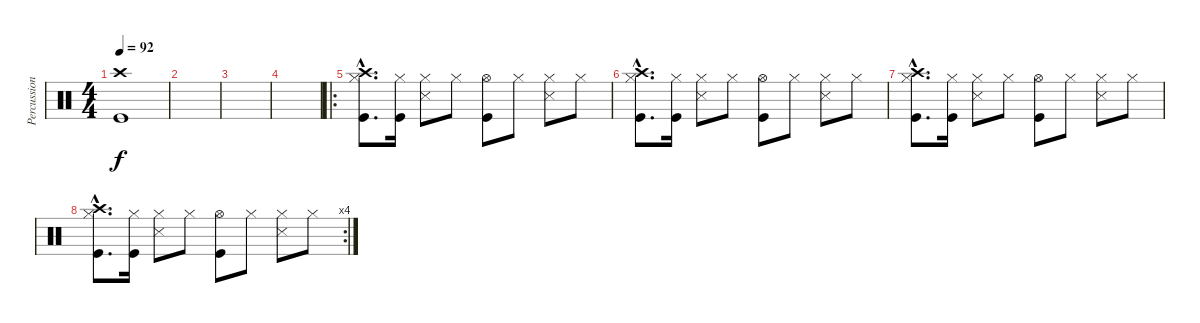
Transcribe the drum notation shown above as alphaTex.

\track ("Percussion" "Percussion") {instrument percussion}
\staff {score}
\articulation defaults
\ts (4 4)
\tempo 92
\clef neutral
\ks c
("Kick (hit)" "Crash high (hit)").1{dy f} |
|
|
|
\ro
("Hi-Hat (closed)"{hac} "Crash high (hit)"{hac} "Kick (hit)"{hac}).8{d} ("Hi-Hat (closed)" "Kick (hit)").16 ("Hi-Hat (closed)" "Snare (side stick) 3").8 "Hi-Hat (closed)".8 ("Hi-Hat (open)" "Kick (hit)").8 "Hi-Hat (closed)".8 ("Hi-Hat (closed)" "Snare (side stick) 3").8 "Hi-Hat (closed)".8 |
("Hi-Hat (closed)"{hac} "Crash high (hit)"{hac} "Kick (hit)"{hac}).8{d} ("Hi-Hat (closed)" "Kick (hit)").16 ("Hi-Hat (closed)" "Snare (side stick) 3").8 "Hi-Hat (closed)".8 ("Hi-Hat (open)" "Kick (hit)").8 "Hi-Hat (closed)".8 ("Hi-Hat (closed)" "Snare (side stick) 3").8 "Hi-Hat (closed)".8 |
("Hi-Hat (closed)"{hac} "Crash high (hit)"{hac} "Kick (hit)"{hac}).8{d} ("Hi-Hat (closed)" "Kick (hit)").16 ("Hi-Hat (closed)" "Snare (side stick) 3").8 "Hi-Hat (closed)".8 ("Hi-Hat (open)" "Kick (hit)").8 "Hi-Hat (closed)".8 ("Hi-Hat (closed)" "Snare (side stick) 3").8 "Hi-Hat (closed)".8 |
\rc 4
("Hi-Hat (closed)"{hac} "Crash high (hit)"{hac} "Kick (hit)"{hac}).8{d} ("Hi-Hat (closed)" "Kick (hit)").16 ("Hi-Hat (closed)" "Snare (side stick) 3").8 "Hi-Hat (closed)".8 ("Hi-Hat (open)" "Kick (hit)").8 "Hi-Hat (closed)".8 ("Hi-Hat (closed)" "Snare (side stick) 3").8 "Hi-Hat (closed)".8
